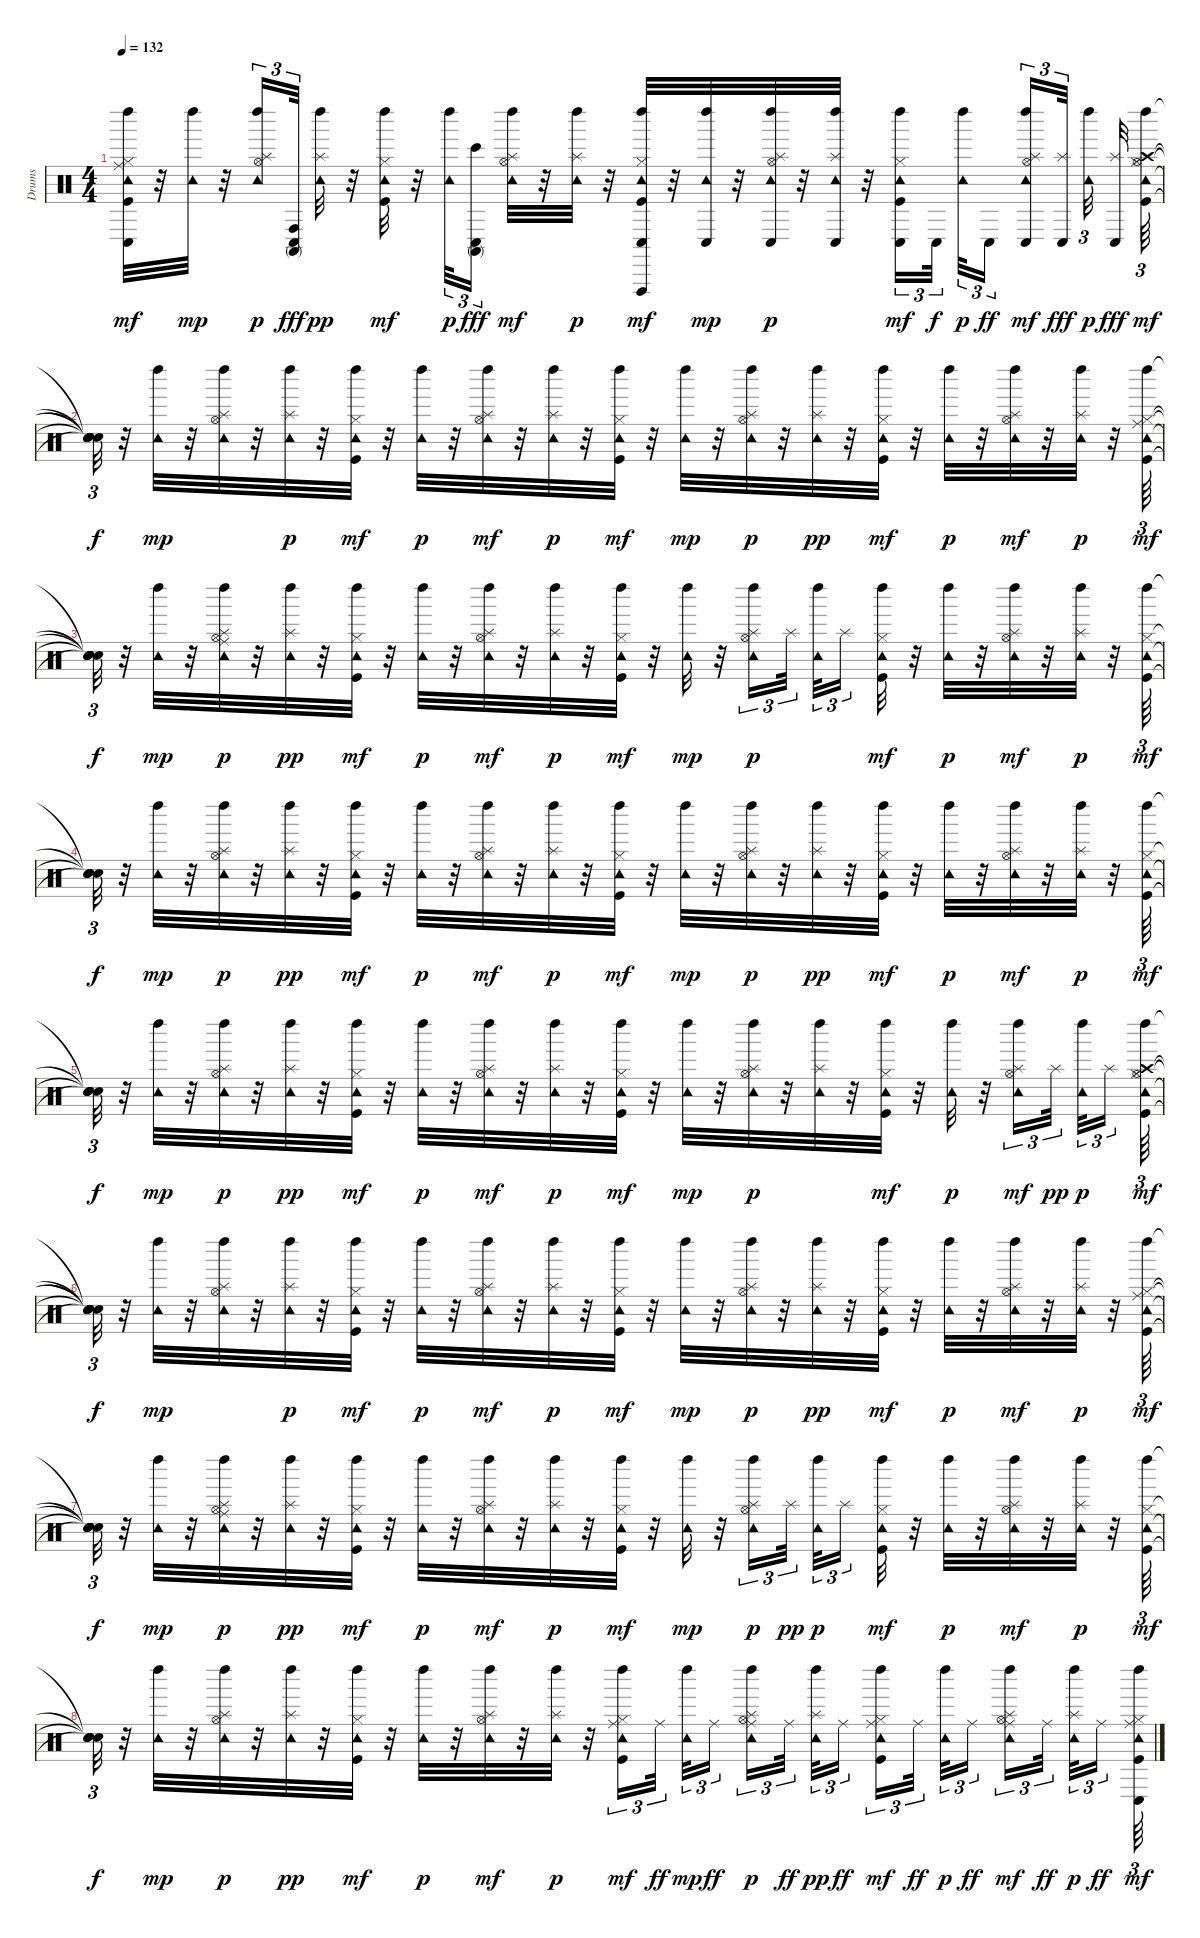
\track ("Drums" "Drums") {instrument percussion}
\staff {score}
\articulation defaults
\ts (4 4)
\tempo 132
\clef neutral
\ks c
("Kick (hit)" "Hi-Hat (closed)" "Ride (middle)" "Tambourine (hit)" "Conga low (hit)" "Left Maraca (hit)").32{dy mf} r.32 ("Tambourine (hit)" "Left Maraca (hit)").32{dy mp} r.32 ("Hi-Hat (open)" "Tambourine (hit)" "Splash (hit)" "Left Maraca (hit)").16{tu (3 2) dy p} ("Conga high (mute)" "Conga high (hit)" "Conga low (hit)").32{tu (3 2) dy fff} ("Tambourine (hit)" "Splash (hit)" "Left Maraca (hit)").32{dy pp} r.32 ("Kick (hit)" "Hi-Hat (closed)" "Tambourine (hit)" "Left Maraca (hit)").32{dy mf} r.32 ("Tambourine (hit)" "Left Maraca (hit)").32{tu (3 2) dy p} ("Bongo High (hit)" "Conga high (mute)" "Conga low (hit)").16{tu (3 2) dy fff beam splitsecondary} ("Hi-Hat (open)" "Tambourine (hit)" "Splash (hit)" "Left Maraca (hit)").32{dy mf} r.32 ("Tambourine (hit)" "Splash (hit)" "Left Maraca (hit)").32{dy p} r.32 ("Kick (hit)" "Hi-Hat (closed)" "Tambourine (hit)" "Vibraslap (hit)" "Conga low (hit)" "Left Maraca (hit)").32{dy mf} r.32 ("Tambourine (hit)" "Conga low (hit)" "Left Maraca (hit)").32{dy mp} r.32 ("Hi-Hat (open)" "Tambourine (hit)" "Splash (hit)" "Conga low (hit)" "Left Maraca (hit)").32{dy p} r.32 ("Tambourine (hit)" "Splash (hit)" "Conga low (hit)" "Left Maraca (hit)").32 r.32 ("Kick (hit)" "Hi-Hat (closed)" "Tambourine (hit)" "Conga low (hit)" "Left Maraca (hit)").16{tu (3 2) dy mf} "Conga low (hit)".32{tu (3 2) dy f beam splitsecondary} ("Tambourine (hit)" "Left Maraca (hit)").32{tu (3 2) dy p} "Conga low (hit)".16{tu (3 2) dy ff beam splitsecondary} ("Hi-Hat (open)" "Tambourine (hit)" "Splash (hit)" "Conga low (hit)" "Left Maraca (hit)").16{tu (3 2) dy mf} ("Splash (hit)" "Conga low (hit)").32{tu (3 2) dy fff beam splitsecondary} ("Tambourine (hit)" "Left Maraca (hit)").32{tu (3 2) dy p beam splitsecondary} ("Splash (hit)" "Conga low (hit)").32{dy fff} ("Kick (hit)" "Hi-Hat (closed)" "Hi-Hat (open)" "Crash high (hit)" "Tambourine (hit)" "Left Maraca (hit)").64{tu (3 2) dy mf} |
("Snare (hit)"{t} "Snare (hit)"{t} "Snare (hit)"{t} "Snare (hit)"{t} "Snare (hit)"{t} "Snare (hit)"{t}).32{tu (3 2) dy f} r.32 ("Tambourine (hit)" "Left Maraca (hit)").32{dy mp} r.32 ("Hi-Hat (open)" "Tambourine (hit)" "Splash (hit)" "Left Maraca (hit)").32 r.32 ("Tambourine (hit)" "Splash (hit)" "Left Maraca (hit)").32{dy p} r.32 ("Kick (hit)" "Hi-Hat (closed)" "Tambourine (hit)" "Left Maraca (hit)").32{dy mf} r.32 ("Tambourine (hit)" "Left Maraca (hit)").32{dy p} r.32 ("Hi-Hat (open)" "Tambourine (hit)" "Splash (hit)" "Left Maraca (hit)").32{dy mf} r.32 ("Tambourine (hit)" "Splash (hit)" "Left Maraca (hit)").32{dy p} r.32 ("Kick (hit)" "Hi-Hat (closed)" "Tambourine (hit)" "Left Maraca (hit)").32{dy mf} r.32 ("Tambourine (hit)" "Left Maraca (hit)").32{dy mp} r.32 ("Hi-Hat (open)" "Tambourine (hit)" "Splash (hit)" "Left Maraca (hit)").32{dy p} r.32 ("Tambourine (hit)" "Splash (hit)" "Left Maraca (hit)").32{dy pp} r.32 ("Kick (hit)" "Hi-Hat (closed)" "Tambourine (hit)" "Left Maraca (hit)").32{dy mf} r.32 ("Tambourine (hit)" "Left Maraca (hit)").32{dy p} r.32 ("Hi-Hat (open)" "Tambourine (hit)" "Splash (hit)" "Left Maraca (hit)").32{dy mf} r.32 ("Tambourine (hit)" "Splash (hit)" "Left Maraca (hit)").32{dy p} r.32 ("Kick (hit)" "Hi-Hat (closed)" "Ride (middle)" "Tambourine (hit)" "Left Maraca (hit)").64{tu (3 2) dy mf} |
("Snare (hit)"{t} "Snare (hit)"{t} "Snare (hit)"{t} "Snare (hit)"{t} "Snare (hit)"{t}).32{tu (3 2) dy f} r.32 ("Tambourine (hit)" "Left Maraca (hit)").32{dy mp} r.32 ("Hi-Hat (open)" "Ride (middle)" "Tambourine (hit)" "Splash (hit)" "Left Maraca (hit)").32{dy p} r.32 ("Tambourine (hit)" "Splash (hit)" "Left Maraca (hit)").32{dy pp} r.32 ("Kick (hit)" "Hi-Hat (closed)" "Tambourine (hit)" "Left Maraca (hit)").32{dy mf} r.32 ("Tambourine (hit)" "Left Maraca (hit)").32{dy p} r.32 ("Hi-Hat (open)" "Tambourine (hit)" "Splash (hit)" "Left Maraca (hit)").32{dy mf} r.32 ("Tambourine (hit)" "Splash (hit)" "Left Maraca (hit)").32{dy p} r.32 ("Kick (hit)" "Hi-Hat (closed)" "Tambourine (hit)" "Left Maraca (hit)").32{dy mf} r.32 ("Tambourine (hit)" "Left Maraca (hit)").32{dy mp} r.32 ("Hi-Hat (open)" "Tambourine (hit)" "Splash (hit)" "Left Maraca (hit)").16{tu (3 2) dy p} "Splash (hit)".32{tu (3 2) beam splitsecondary} ("Tambourine (hit)" "Left Maraca (hit)").32{tu (3 2)} "Splash (hit)".16{tu (3 2) beam splitsecondary} ("Kick (hit)" "Hi-Hat (closed)" "Tambourine (hit)" "Left Maraca (hit)").32{dy mf} r.32 ("Tambourine (hit)" "Left Maraca (hit)").32{dy p} r.32 ("Hi-Hat (open)" "Tambourine (hit)" "Splash (hit)" "Left Maraca (hit)").32{dy mf} r.32 ("Tambourine (hit)" "Splash (hit)" "Left Maraca (hit)").32{dy p} r.32 ("Kick (hit)" "Hi-Hat (closed)" "Tambourine (hit)" "Left Maraca (hit)").64{tu (3 2) dy mf} |
("Snare (hit)"{t} "Snare (hit)"{t} "Snare (hit)"{t} "Snare (hit)"{t}).32{tu (3 2) dy f} r.32 ("Tambourine (hit)" "Left Maraca (hit)").32{dy mp} r.32 ("Hi-Hat (open)" "Tambourine (hit)" "Splash (hit)" "Left Maraca (hit)").32{dy p} r.32 ("Tambourine (hit)" "Splash (hit)" "Left Maraca (hit)").32{dy pp} r.32 ("Kick (hit)" "Hi-Hat (closed)" "Tambourine (hit)" "Left Maraca (hit)").32{dy mf} r.32 ("Tambourine (hit)" "Left Maraca (hit)").32{dy p} r.32 ("Hi-Hat (open)" "Tambourine (hit)" "Splash (hit)" "Left Maraca (hit)").32{dy mf} r.32 ("Tambourine (hit)" "Splash (hit)" "Left Maraca (hit)").32{dy p} r.32 ("Kick (hit)" "Hi-Hat (closed)" "Tambourine (hit)" "Left Maraca (hit)").32{dy mf} r.32 ("Tambourine (hit)" "Left Maraca (hit)").32{dy mp} r.32 ("Hi-Hat (open)" "Tambourine (hit)" "Splash (hit)" "Left Maraca (hit)").32{dy p} r.32 ("Tambourine (hit)" "Splash (hit)" "Left Maraca (hit)").32{dy pp} r.32 ("Kick (hit)" "Hi-Hat (closed)" "Tambourine (hit)" "Left Maraca (hit)").32{dy mf} r.32 ("Tambourine (hit)" "Left Maraca (hit)").32{dy p} r.32 ("Hi-Hat (open)" "Tambourine (hit)" "Splash (hit)" "Left Maraca (hit)").32{dy mf} r.32 ("Tambourine (hit)" "Splash (hit)" "Left Maraca (hit)").32{dy p} r.32 ("Kick (hit)" "Hi-Hat (closed)" "Tambourine (hit)" "Left Maraca (hit)").64{tu (3 2) dy mf} |
("Snare (hit)"{t} "Snare (hit)"{t} "Snare (hit)"{t} "Snare (hit)"{t}).32{tu (3 2) dy f} r.32 ("Tambourine (hit)" "Left Maraca (hit)").32{dy mp} r.32 ("Hi-Hat (open)" "Tambourine (hit)" "Splash (hit)" "Left Maraca (hit)").32{dy p} r.32 ("Tambourine (hit)" "Splash (hit)" "Left Maraca (hit)").32{dy pp} r.32 ("Kick (hit)" "Hi-Hat (closed)" "Tambourine (hit)" "Left Maraca (hit)").32{dy mf} r.32 ("Tambourine (hit)" "Left Maraca (hit)").32{dy p} r.32 ("Hi-Hat (open)" "Tambourine (hit)" "Splash (hit)" "Left Maraca (hit)").32{dy mf} r.32 ("Tambourine (hit)" "Splash (hit)" "Left Maraca (hit)").32{dy p} r.32 ("Kick (hit)" "Hi-Hat (closed)" "Tambourine (hit)" "Left Maraca (hit)").32{dy mf} r.32 ("Tambourine (hit)" "Left Maraca (hit)").32{dy mp} r.32 ("Hi-Hat (open)" "Tambourine (hit)" "Splash (hit)" "Left Maraca (hit)").32{dy p} r.32 ("Tambourine (hit)" "Splash (hit)" "Left Maraca (hit)").32 r.32 ("Kick (hit)" "Hi-Hat (closed)" "Tambourine (hit)" "Left Maraca (hit)").32{dy mf} r.32 ("Tambourine (hit)" "Left Maraca (hit)").32{dy p} r.32 ("Hi-Hat (open)" "Tambourine (hit)" "Splash (hit)" "Left Maraca (hit)").16{tu (3 2) dy mf} "Splash (hit)".32{tu (3 2) dy pp beam splitsecondary} ("Tambourine (hit)" "Left Maraca (hit)").32{tu (3 2) dy p} "Splash (hit)".16{tu (3 2) beam splitsecondary} ("Kick (hit)" "Hi-Hat (closed)" "Hi-Hat (open)" "Crash high (hit)" "Tambourine (hit)" "Left Maraca (hit)").64{tu (3 2) dy mf} |
("Snare (hit)"{t} "Snare (hit)"{t} "Snare (hit)"{t} "Snare (hit)"{t} "Snare (hit)"{t} "Snare (hit)"{t}).32{tu (3 2) dy f} r.32 ("Tambourine (hit)" "Left Maraca (hit)").32{dy mp} r.32 ("Hi-Hat (open)" "Tambourine (hit)" "Splash (hit)" "Left Maraca (hit)").32 r.32 ("Tambourine (hit)" "Splash (hit)" "Left Maraca (hit)").32{dy p} r.32 ("Kick (hit)" "Hi-Hat (closed)" "Tambourine (hit)" "Left Maraca (hit)").32{dy mf} r.32 ("Tambourine (hit)" "Left Maraca (hit)").32{dy p} r.32 ("Hi-Hat (open)" "Tambourine (hit)" "Splash (hit)" "Left Maraca (hit)").32{dy mf} r.32 ("Tambourine (hit)" "Splash (hit)" "Left Maraca (hit)").32{dy p} r.32 ("Kick (hit)" "Hi-Hat (closed)" "Tambourine (hit)" "Left Maraca (hit)").32{dy mf} r.32 ("Tambourine (hit)" "Left Maraca (hit)").32{dy mp} r.32 ("Hi-Hat (open)" "Tambourine (hit)" "Splash (hit)" "Left Maraca (hit)").32{dy p} r.32 ("Tambourine (hit)" "Splash (hit)" "Left Maraca (hit)").32{dy pp} r.32 ("Kick (hit)" "Hi-Hat (closed)" "Tambourine (hit)" "Left Maraca (hit)").32{dy mf} r.32 ("Tambourine (hit)" "Left Maraca (hit)").32{dy p} r.32 ("Hi-Hat (open)" "Tambourine (hit)" "Splash (hit)" "Left Maraca (hit)").32{dy mf} r.32 ("Tambourine (hit)" "Splash (hit)" "Left Maraca (hit)").32{dy p} r.32 ("Kick (hit)" "Hi-Hat (closed)" "Ride (middle)" "Tambourine (hit)" "Left Maraca (hit)").64{tu (3 2) dy mf} |
("Snare (hit)"{t} "Snare (hit)"{t} "Snare (hit)"{t} "Snare (hit)"{t} "Snare (hit)"{t}).32{tu (3 2) dy f} r.32 ("Tambourine (hit)" "Left Maraca (hit)").32{dy mp} r.32 ("Hi-Hat (open)" "Ride (middle)" "Tambourine (hit)" "Splash (hit)" "Left Maraca (hit)").32{dy p} r.32 ("Tambourine (hit)" "Splash (hit)" "Left Maraca (hit)").32{dy pp} r.32 ("Kick (hit)" "Hi-Hat (closed)" "Tambourine (hit)" "Left Maraca (hit)").32{dy mf} r.32 ("Tambourine (hit)" "Left Maraca (hit)").32{dy p} r.32 ("Hi-Hat (open)" "Tambourine (hit)" "Splash (hit)" "Left Maraca (hit)").32{dy mf} r.32 ("Tambourine (hit)" "Splash (hit)" "Left Maraca (hit)").32{dy p} r.32 ("Kick (hit)" "Hi-Hat (closed)" "Tambourine (hit)" "Left Maraca (hit)").32{dy mf} r.32 ("Tambourine (hit)" "Left Maraca (hit)").32{dy mp} r.32 ("Hi-Hat (open)" "Tambourine (hit)" "Splash (hit)" "Left Maraca (hit)").16{tu (3 2) dy p} "Splash (hit)".32{tu (3 2) dy pp beam splitsecondary} ("Tambourine (hit)" "Left Maraca (hit)").32{tu (3 2) dy p} "Splash (hit)".16{tu (3 2) beam splitsecondary} ("Kick (hit)" "Hi-Hat (closed)" "Tambourine (hit)" "Left Maraca (hit)").32{dy mf} r.32 ("Tambourine (hit)" "Left Maraca (hit)").32{dy p} r.32 ("Hi-Hat (open)" "Tambourine (hit)" "Splash (hit)" "Left Maraca (hit)").32{dy mf} r.32 ("Tambourine (hit)" "Splash (hit)" "Left Maraca (hit)").32{dy p} r.32 ("Kick (hit)" "Hi-Hat (closed)" "Tambourine (hit)" "Left Maraca (hit)").64{tu (3 2) dy mf} |
("Snare (hit)"{t} "Snare (hit)"{t} "Snare (hit)"{t} "Snare (hit)"{t}).32{tu (3 2) dy f} r.32 ("Tambourine (hit)" "Left Maraca (hit)").32{dy mp} r.32 ("Hi-Hat (open)" "Tambourine (hit)" "Splash (hit)" "Left Maraca (hit)").32{dy p} r.32 ("Tambourine (hit)" "Splash (hit)" "Left Maraca (hit)").32{dy pp} r.32 ("Kick (hit)" "Hi-Hat (closed)" "Tambourine (hit)" "Left Maraca (hit)").32{dy mf} r.32 ("Tambourine (hit)" "Left Maraca (hit)").32{dy p} r.32 ("Hi-Hat (open)" "Tambourine (hit)" "Splash (hit)" "Left Maraca (hit)").32{dy mf} r.32 ("Tambourine (hit)" "Splash (hit)" "Left Maraca (hit)").32{dy p} r.32 ("Kick (hit)" "Hi-Hat (closed)" "Ride (middle)" "Tambourine (hit)" "Left Maraca (hit)").16{tu (3 2) dy mf} "Ride (middle)".32{tu (3 2) dy ff beam splitsecondary} ("Tambourine (hit)" "Left Maraca (hit)").32{tu (3 2) dy mp} "Ride (middle)".16{tu (3 2) dy ff beam splitsecondary} ("Hi-Hat (open)" "Ride (middle)" "Tambourine (hit)" "Splash (hit)" "Left Maraca (hit)").16{tu (3 2) dy p} "Ride (middle)".32{tu (3 2) dy ff beam splitsecondary} ("Tambourine (hit)" "Splash (hit)" "Left Maraca (hit)").32{tu (3 2) dy pp} "Ride (middle)".16{tu (3 2) dy ff beam splitsecondary} ("Kick (hit)" "Hi-Hat (closed)" "Ride (middle)" "Tambourine (hit)" "Left Maraca (hit)").16{tu (3 2) dy mf} "Ride (middle)".32{tu (3 2) dy ff beam splitsecondary} ("Tambourine (hit)" "Left Maraca (hit)").32{tu (3 2) dy p} "Ride (middle)".16{tu (3 2) dy ff beam splitsecondary} ("Hi-Hat (open)" "Ride (middle)" "Tambourine (hit)" "Splash (hit)" "Left Maraca (hit)").16{tu (3 2) dy mf} "Ride (middle)".32{tu (3 2) dy ff beam splitsecondary} ("Tambourine (hit)" "Splash (hit)" "Left Maraca (hit)").32{tu (3 2) dy p} "Ride (middle)".16{tu (3 2) dy ff beam splitsecondary} ("Kick (hit)" "Hi-Hat (closed)" "Ride (middle)" "Tambourine (hit)" "Conga low (hit)" "Left Maraca (hit)").64{tu (3 2) dy mf}
